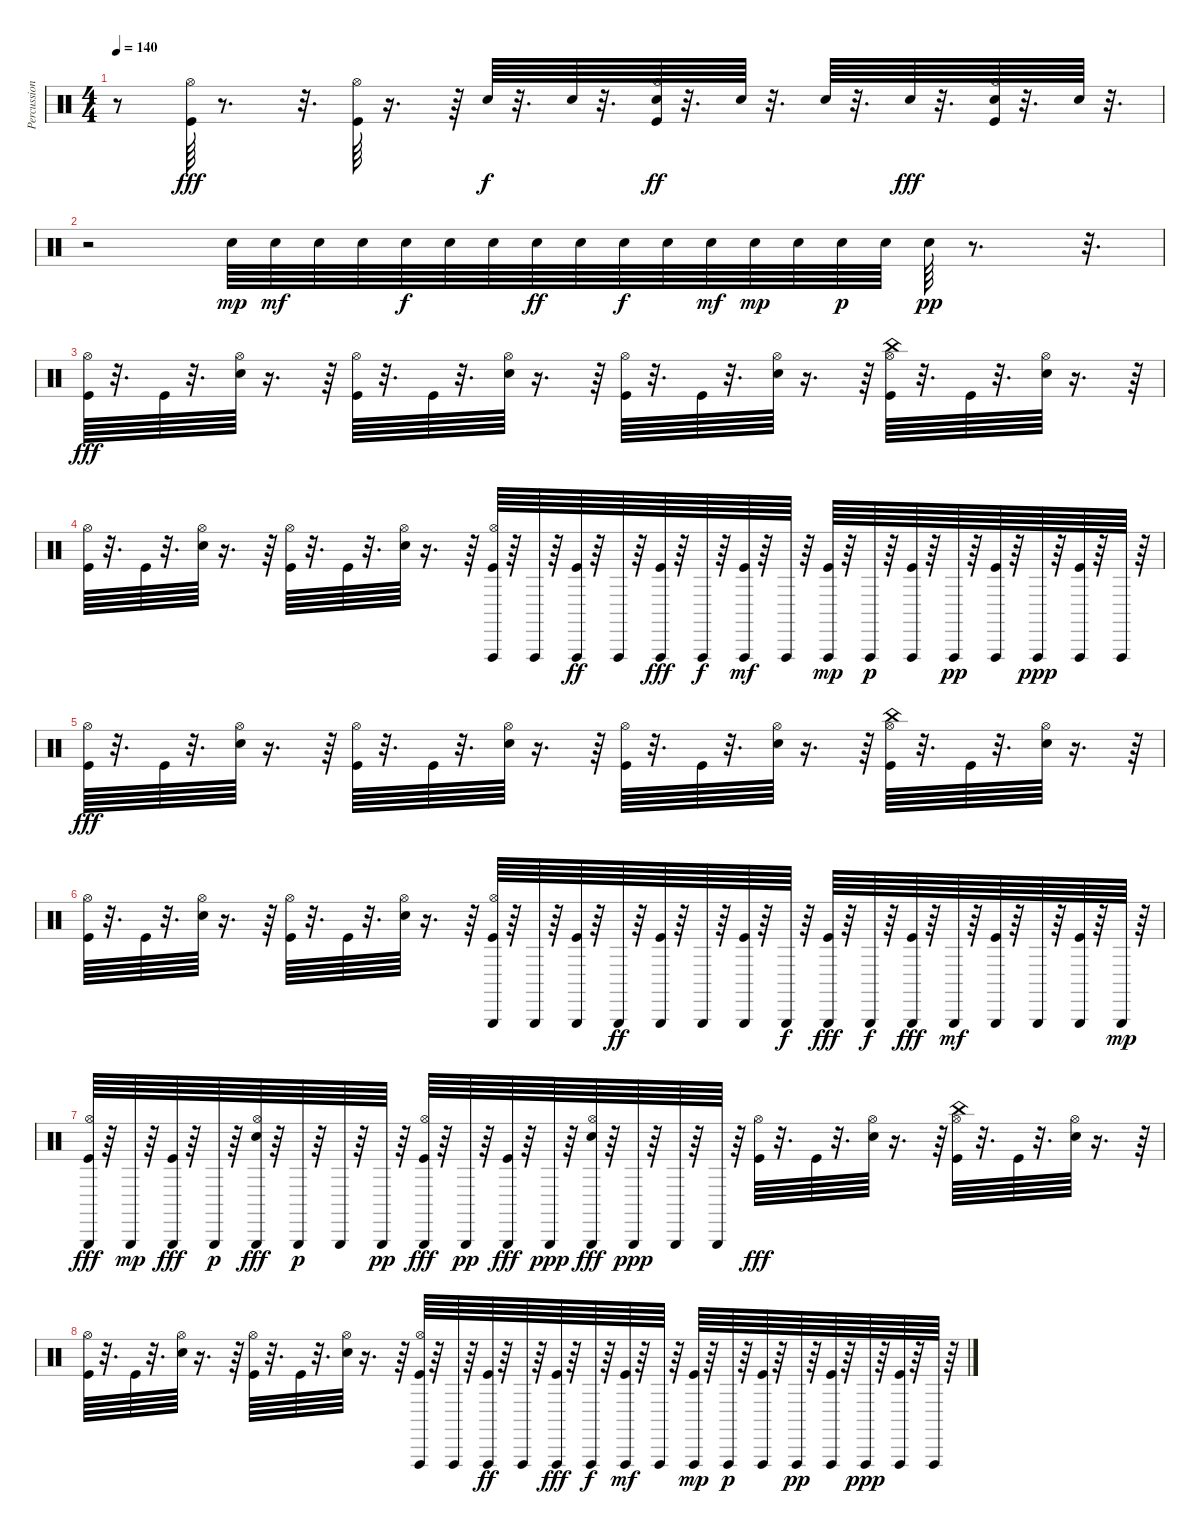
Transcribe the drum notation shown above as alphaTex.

\track ("Percussion [Room Kit]" "Percussion") {instrument percussion}
\staff {score}
\articulation defaults
\ts (4 4)
\tempo 140
\clef neutral
\ks c
r.8{dy fff} ("Kick (hit)" "Hi-Hat (open)").64 r.8{d} r.32{d} ("Kick (hit)" "Hi-Hat (open)").64 r.16{d} r.64 "Electric Snare (hit)".64{dy f} r.32{d} "Electric Snare (hit)".64 r.32{d} ("Kick (hit)" "Hi-Hat (open)" "Electric Snare (hit)").64{dy ff} r.32{d} "Electric Snare (hit)".64 r.32{d} "Electric Snare (hit)".64 r.32{d} "Electric Snare (hit)".64{dy fff} r.32{d} ("Kick (hit)" "Hi-Hat (open)" "Electric Snare (hit)").64 r.32{d} "Electric Snare (hit)".64 r.32{d} |
r.2 "Electric Snare (hit)".64{dy mp} "Electric Snare (hit)".64{dy mf} "Electric Snare (hit)".64 "Electric Snare (hit)".64 "Electric Snare (hit)".64{dy f} "Electric Snare (hit)".64 "Electric Snare (hit)".64 "Electric Snare (hit)".64{dy ff} "Electric Snare (hit)".64 "Electric Snare (hit)".64{dy f} "Electric Snare (hit)".64 "Electric Snare (hit)".64{dy mf} "Electric Snare (hit)".64{dy mp} "Electric Snare (hit)".64 "Electric Snare (hit)".64{dy p} "Electric Snare (hit)".64 "Electric Snare (hit)".64{dy pp} r.8{d} r.32{d} |
("Kick (hit)" "Hi-Hat (open)").64{dy fff} r.32{d} "Kick (hit)".64 r.32{d} ("Electric Snare (hit)" "Hi-Hat (open)").64 r.16{d} r.64 ("Kick (hit)" "Hi-Hat (open)").64 r.32{d} "Kick (hit)".64 r.32{d} ("Electric Snare (hit)" "Hi-Hat (open)").64 r.16{d} r.64 ("Kick (hit)" "Hi-Hat (open)").64 r.32{d} "Kick (hit)".64 r.32{d} ("Electric Snare (hit)" "Hi-Hat (open)").64 r.16{d} r.64 ("Kick (hit)" "Hi-Hat (open)" "China (hit)").64 r.32{d} "Kick (hit)".64 r.32{d} ("Electric Snare (hit)" "Hi-Hat (open)").64 r.16{d} r.64 |
("Kick (hit)" "Hi-Hat (open)").64 r.32{d} "Kick (hit)".64 r.32{d} ("Electric Snare (hit)" "Hi-Hat (open)").64 r.16{d} r.64 ("Kick (hit)" "Hi-Hat (open)").64 r.32{d} "Kick (hit)".64 r.32{d} ("Electric Snare (hit)" "Hi-Hat (open)").64 r.16{d} r.64 ("Kick (hit)" "Hi-Hat (open)" "Vibraslap (hit)").64 r.64 "Vibraslap (hit)".64 r.64 ("Kick (hit)" "Vibraslap (hit)").64{dy ff} r.64 "Vibraslap (hit)".64 r.64 ("Kick (hit)" "Vibraslap (hit)").64{dy fff} r.64 "Vibraslap (hit)".64{dy f} r.64 ("Kick (hit)" "Vibraslap (hit)").64{dy mf} r.64 "Vibraslap (hit)".64 r.64 ("Kick (hit)" "Vibraslap (hit)").64{dy mp} r.64 "Vibraslap (hit)".64{dy p} r.64 ("Kick (hit)" "Vibraslap (hit)").64 r.64 "Vibraslap (hit)".64{dy pp} r.64 ("Kick (hit)" "Vibraslap (hit)").64 r.64 "Vibraslap (hit)".64{dy ppp} r.64 ("Kick (hit)" "Vibraslap (hit)").64 r.64 "Vibraslap (hit)".64 r.64 |
("Kick (hit)" "Hi-Hat (open)").64{dy fff} r.32{d} "Kick (hit)".64 r.32{d} ("Electric Snare (hit)" "Hi-Hat (open)").64 r.16{d} r.64 ("Kick (hit)" "Hi-Hat (open)").64 r.32{d} "Kick (hit)".64 r.32{d} ("Electric Snare (hit)" "Hi-Hat (open)").64 r.16{d} r.64 ("Kick (hit)" "Hi-Hat (open)").64 r.32{d} "Kick (hit)".64 r.32{d} ("Electric Snare (hit)" "Hi-Hat (open)").64 r.16{d} r.64 ("Kick (hit)" "Hi-Hat (open)" "China (hit)").64 r.32{d} "Kick (hit)".64 r.32{d} ("Electric Snare (hit)" "Hi-Hat (open)").64 r.16{d} r.64 |
("Kick (hit)" "Hi-Hat (open)").64 r.32{d} "Kick (hit)".64 r.32{d} ("Electric Snare (hit)" "Hi-Hat (open)").64 r.16{d} r.64 ("Kick (hit)" "Hi-Hat (open)").64 r.32{d} "Kick (hit)".64 r.32{d} ("Electric Snare (hit)" "Hi-Hat (open)").64 r.16{d} r.64 ("Kick (hit)" "Hi-Hat (open)" "Triangle (hit)").64 r.64 "Triangle (hit)".64 r.64 ("Kick (hit)" "Triangle (hit)").64 r.64 "Triangle (hit)".64{dy ff} r.64 ("Kick (hit)" "Triangle (hit)").64 r.64 "Triangle (hit)".64 r.64 ("Kick (hit)" "Triangle (hit)").64 r.64 "Triangle (hit)".64{dy f} r.64 ("Kick (hit)" "Triangle (hit)").64{dy fff} r.64 "Triangle (hit)".64{dy f} r.64 ("Kick (hit)" "Triangle (hit)").64{dy fff} r.64 "Triangle (hit)".64{dy mf} r.64 ("Kick (hit)" "Triangle (hit)").64 r.64 "Triangle (hit)".64 r.64 ("Kick (hit)" "Triangle (hit)").64 r.64 "Triangle (hit)".64{dy mp} r.64 |
("Triangle (hit)" "Hi-Hat (open)" "Kick (hit)").64{dy fff} r.64 "Triangle (hit)".64{dy mp} r.64 ("Triangle (hit)" "Kick (hit)").64{dy fff} r.64 "Triangle (hit)".64{dy p} r.64 ("Triangle (hit)" "Electric Snare (hit)" "Hi-Hat (open)").64{dy fff} r.64 "Triangle (hit)".64{dy p} r.64 "Triangle (hit)".64 r.64 "Triangle (hit)".64{dy pp} r.64 ("Triangle (hit)" "Kick (hit)" "Hi-Hat (open)").64{dy fff} r.64 "Triangle (hit)".64{dy pp} r.64 ("Triangle (hit)" "Kick (hit)").64{dy fff} r.64 "Triangle (hit)".64{dy ppp} r.64 ("Triangle (hit)" "Electric Snare (hit)" "Hi-Hat (open)").64{dy fff} r.64 "Triangle (hit)".64{dy ppp} r.64 "Triangle (hit)".64 r.64 "Triangle (hit)".64 r.64 ("Kick (hit)" "Hi-Hat (open)").64{dy fff} r.32{d} "Kick (hit)".64 r.32{d} ("Electric Snare (hit)" "Hi-Hat (open)").64 r.16{d} r.64 ("Kick (hit)" "Hi-Hat (open)" "China (hit)").64 r.32{d} "Kick (hit)".64 r.32{d} ("Electric Snare (hit)" "Hi-Hat (open)").64 r.16{d} r.64 |
("Kick (hit)" "Hi-Hat (open)").64 r.32{d} "Kick (hit)".64 r.32{d} ("Electric Snare (hit)" "Hi-Hat (open)").64 r.16{d} r.64 ("Kick (hit)" "Hi-Hat (open)").64 r.32{d} "Kick (hit)".64 r.32{d} ("Electric Snare (hit)" "Hi-Hat (open)").64 r.16{d} r.64 ("Kick (hit)" "Hi-Hat (open)" "Vibraslap (hit)").64 r.64 "Vibraslap (hit)".64 r.64 ("Kick (hit)" "Vibraslap (hit)").64{dy ff} r.64 "Vibraslap (hit)".64 r.64 ("Kick (hit)" "Vibraslap (hit)").64{dy fff} r.64 "Vibraslap (hit)".64{dy f} r.64 ("Kick (hit)" "Vibraslap (hit)").64{dy mf} r.64 "Vibraslap (hit)".64 r.64 ("Kick (hit)" "Vibraslap (hit)").64{dy mp} r.64 "Vibraslap (hit)".64{dy p} r.64 ("Kick (hit)" "Vibraslap (hit)").64 r.64 "Vibraslap (hit)".64{dy pp} r.64 ("Kick (hit)" "Vibraslap (hit)").64 r.64 "Vibraslap (hit)".64{dy ppp} r.64 ("Kick (hit)" "Vibraslap (hit)").64 r.64 "Vibraslap (hit)".64 r.64
